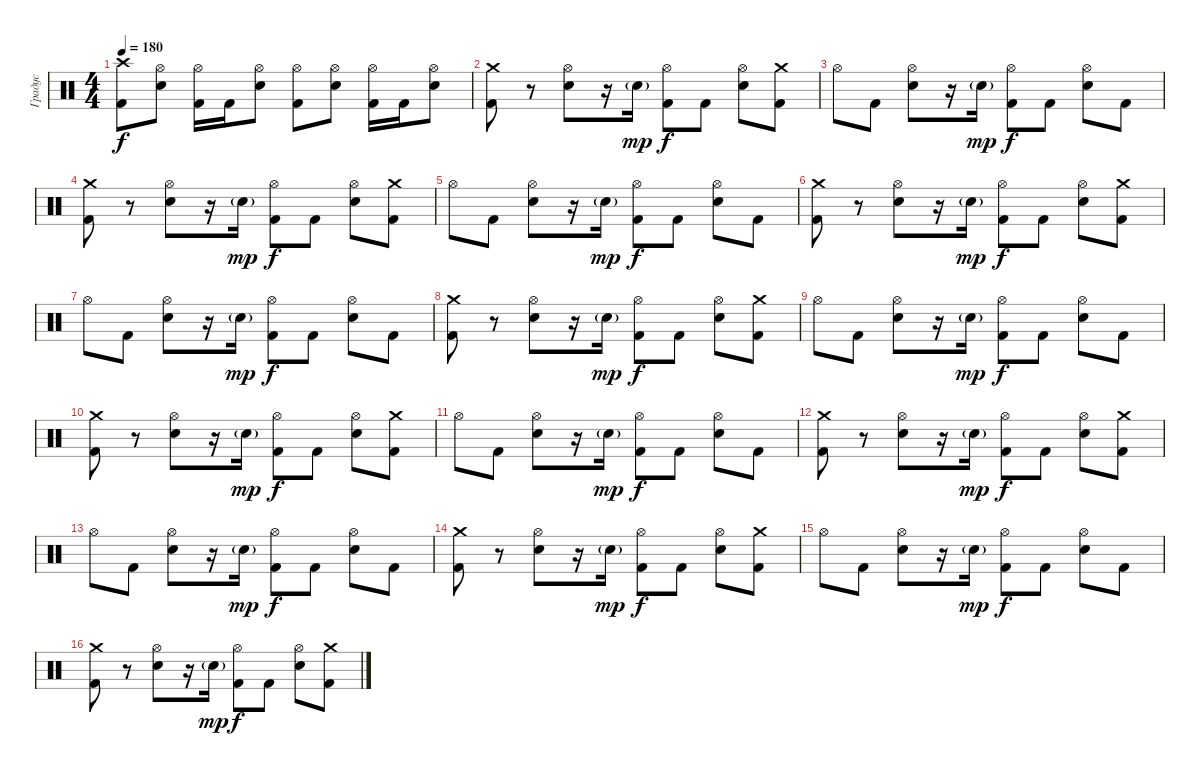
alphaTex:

\track ("Градус" "Градус") {instrument percussion}
\staff {score}
\articulation defaults
\ts (4 4)
\tempo 180
\clef neutral
\ks c
("Kick (hit) 2" "Crash high (hit)").8{dy f} ("Electric Snare (hit)" "Hi-Hat (open)").8 ("Kick (hit) 2" "Hi-Hat (open)").16 "Kick (hit) 2".16 ("Electric Snare (hit)" "Hi-Hat (open)").8 ("Kick (hit) 2" "Hi-Hat (open)").8 ("Electric Snare (hit)" "Hi-Hat (open)").8 ("Kick (hit) 2" "Hi-Hat (open)").16 "Kick (hit) 2".16 ("Electric Snare (hit)" "Hi-Hat (open)").8 |
("Kick (hit) 2" "Crash medium (hit)").8 r.8 ("Electric Snare (hit)" "Hi-Hat (open)").8 r.16 "Electric Snare (hit)"{g}.16{dy mp} ("Kick (hit) 2" "Hi-Hat (open)").8{dy f} "Kick (hit) 2".8 ("Electric Snare (hit)" "Hi-Hat (open)").8 ("Kick (hit) 2" "Crash medium (hit)").8 |
"Hi-Hat (open)".8 "Kick (hit) 2".8 ("Electric Snare (hit)" "Hi-Hat (open)").8 r.16 "Electric Snare (hit)"{g}.16{dy mp} ("Kick (hit) 2" "Hi-Hat (open)").8{dy f} "Kick (hit) 2".8 ("Electric Snare (hit)" "Hi-Hat (open)").8 "Kick (hit) 2".8 |
("Kick (hit) 2" "Crash medium (hit)").8 r.8 ("Electric Snare (hit)" "Hi-Hat (open)").8 r.16 "Electric Snare (hit)"{g}.16{dy mp} ("Kick (hit) 2" "Hi-Hat (open)").8{dy f} "Kick (hit) 2".8 ("Electric Snare (hit)" "Hi-Hat (open)").8 ("Kick (hit) 2" "Crash medium (hit)").8 |
"Hi-Hat (open)".8 "Kick (hit) 2".8 ("Electric Snare (hit)" "Hi-Hat (open)").8 r.16 "Electric Snare (hit)"{g}.16{dy mp} ("Kick (hit) 2" "Hi-Hat (open)").8{dy f} "Kick (hit) 2".8 ("Electric Snare (hit)" "Hi-Hat (open)").8 "Kick (hit) 2".8 |
("Kick (hit) 2" "Crash medium (hit)").8 r.8 ("Electric Snare (hit)" "Hi-Hat (open)").8 r.16 "Electric Snare (hit)"{g}.16{dy mp} ("Kick (hit) 2" "Hi-Hat (open)").8{dy f} "Kick (hit) 2".8 ("Electric Snare (hit)" "Hi-Hat (open)").8 ("Kick (hit) 2" "Crash medium (hit)").8 |
"Hi-Hat (open)".8 "Kick (hit) 2".8 ("Electric Snare (hit)" "Hi-Hat (open)").8 r.16 "Electric Snare (hit)"{g}.16{dy mp} ("Kick (hit) 2" "Hi-Hat (open)").8{dy f} "Kick (hit) 2".8 ("Electric Snare (hit)" "Hi-Hat (open)").8 "Kick (hit) 2".8 |
("Kick (hit) 2" "Crash medium (hit)").8 r.8 ("Electric Snare (hit)" "Hi-Hat (open)").8 r.16 "Electric Snare (hit)"{g}.16{dy mp} ("Kick (hit) 2" "Hi-Hat (open)").8{dy f} "Kick (hit) 2".8 ("Electric Snare (hit)" "Hi-Hat (open)").8 ("Kick (hit) 2" "Crash medium (hit)").8 |
"Hi-Hat (open)".8 "Kick (hit) 2".8 ("Electric Snare (hit)" "Hi-Hat (open)").8 r.16 "Electric Snare (hit)"{g}.16{dy mp} ("Kick (hit) 2" "Hi-Hat (open)").8{dy f} "Kick (hit) 2".8 ("Electric Snare (hit)" "Hi-Hat (open)").8 "Kick (hit) 2".8 |
("Kick (hit) 2" "Crash medium (hit)").8 r.8 ("Electric Snare (hit)" "Hi-Hat (open)").8 r.16 "Electric Snare (hit)"{g}.16{dy mp} ("Kick (hit) 2" "Hi-Hat (open)").8{dy f} "Kick (hit) 2".8 ("Electric Snare (hit)" "Hi-Hat (open)").8 ("Kick (hit) 2" "Crash medium (hit)").8 |
"Hi-Hat (open)".8 "Kick (hit) 2".8 ("Electric Snare (hit)" "Hi-Hat (open)").8 r.16 "Electric Snare (hit)"{g}.16{dy mp} ("Kick (hit) 2" "Hi-Hat (open)").8{dy f} "Kick (hit) 2".8 ("Electric Snare (hit)" "Hi-Hat (open)").8 "Kick (hit) 2".8 |
("Kick (hit) 2" "Crash medium (hit)").8 r.8 ("Electric Snare (hit)" "Hi-Hat (open)").8 r.16 "Electric Snare (hit)"{g}.16{dy mp} ("Kick (hit) 2" "Hi-Hat (open)").8{dy f} "Kick (hit) 2".8 ("Electric Snare (hit)" "Hi-Hat (open)").8 ("Kick (hit) 2" "Crash medium (hit)").8 |
"Hi-Hat (open)".8 "Kick (hit) 2".8 ("Electric Snare (hit)" "Hi-Hat (open)").8 r.16 "Electric Snare (hit)"{g}.16{dy mp} ("Kick (hit) 2" "Hi-Hat (open)").8{dy f} "Kick (hit) 2".8 ("Electric Snare (hit)" "Hi-Hat (open)").8 "Kick (hit) 2".8 |
("Kick (hit) 2" "Crash medium (hit)").8 r.8 ("Electric Snare (hit)" "Hi-Hat (open)").8 r.16 "Electric Snare (hit)"{g}.16{dy mp} ("Kick (hit) 2" "Hi-Hat (open)").8{dy f} "Kick (hit) 2".8 ("Electric Snare (hit)" "Hi-Hat (open)").8 ("Kick (hit) 2" "Crash medium (hit)").8 |
"Hi-Hat (open)".8 "Kick (hit) 2".8 ("Electric Snare (hit)" "Hi-Hat (open)").8 r.16 "Electric Snare (hit)"{g}.16{dy mp} ("Kick (hit) 2" "Hi-Hat (open)").8{dy f} "Kick (hit) 2".8 ("Electric Snare (hit)" "Hi-Hat (open)").8 "Kick (hit) 2".8 |
("Kick (hit) 2" "Crash medium (hit)").8 r.8 ("Electric Snare (hit)" "Hi-Hat (open)").8 r.16 "Electric Snare (hit)"{g}.16{dy mp} ("Kick (hit) 2" "Hi-Hat (open)").8{dy f} "Kick (hit) 2".8 ("Electric Snare (hit)" "Hi-Hat (open)").8 ("Kick (hit) 2" "Crash medium (hit)").8
